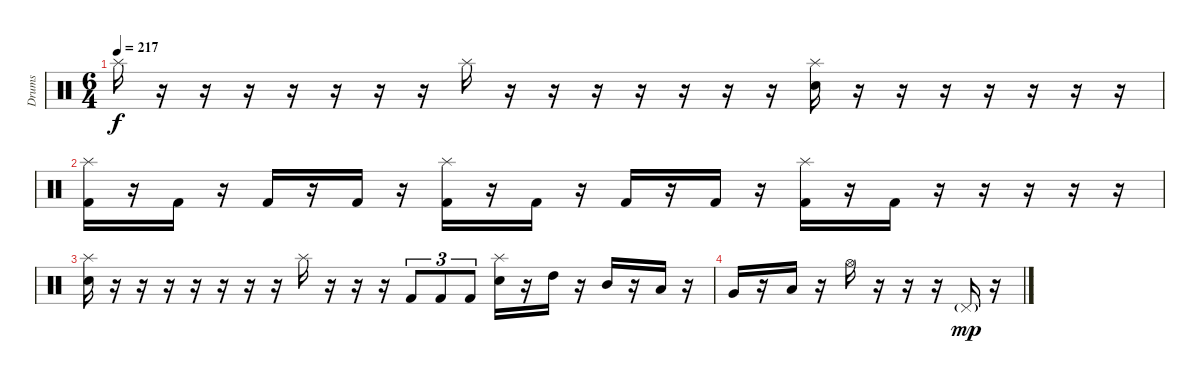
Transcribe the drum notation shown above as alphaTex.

\track ("Drums" "Drums") {instrument percussion}
\staff {score}
\articulation defaults
\ts (6 4)
\tempo 217
\clef neutral
\ks c "Splash (hit)".16{dy f}
r.16 r.16 r.16 r.16 r.16 r.16 r.16 "Splash (hit)".16 r.16 r.16 r.16 r.16 r.16 r.16 r.16 ("Splash (hit)" "Electric Snare (hit)").16 r.16 r.16 r.16 r.16 r.16 r.16 r.16 |
("Splash (hit)" "Kick (hit) 2").16 r.16 "Kick (hit) 2".16 r.16 "Kick (hit) 2".16 r.16 "Kick (hit) 2".16 r.16 ("Splash (hit)" "Kick (hit) 2").16 r.16 "Kick (hit) 2".16 r.16 "Kick (hit) 2".16 r.16 "Kick (hit) 2".16 r.16 ("Splash (hit)" "Kick (hit) 2").16 r.16 "Kick (hit) 2".16 r.16 r.16 r.16 r.16 r.16 |
("Splash (hit)" "Electric Snare (hit)").16 r.16 r.16 r.16 r.16 r.16 r.16 r.16 "Splash (hit)".16 r.16 r.16 r.16 "Kick (hit) 2".8{tu (3 2)} "Kick (hit) 2".8{tu (3 2)} "Kick (hit) 2".8{tu (3 2)} ("Splash (hit)" "Electric Snare (hit)").16 r.16 "High Tom (hit)".16 r.16 "Mid Tom (hit)".16 r.16 "Low Tom (hit)".16 r.16 |
"Very Low Tom (hit)".16 r.16 "Low Tom (hit)".16 r.16 "Hi-Hat (open)".16 r.16 r.16 r.16 "Pedal Hi-Hat (hit)"{g}.16{dy mp} r.16
